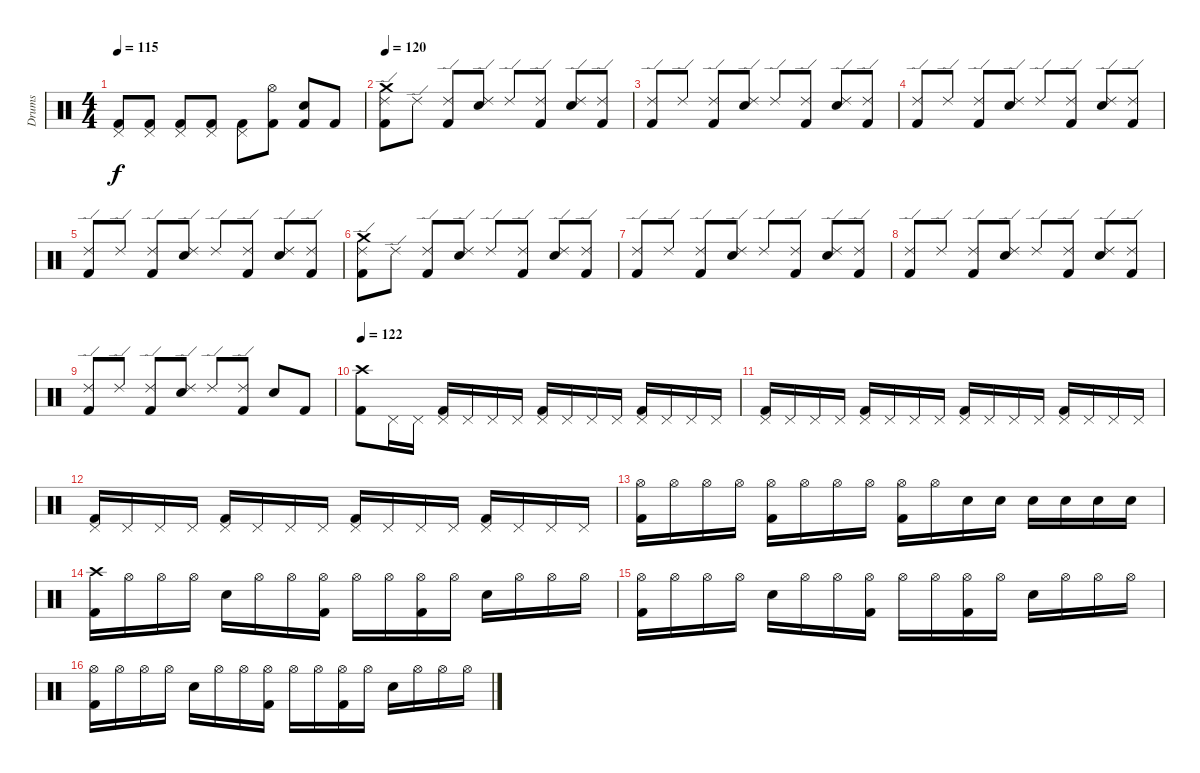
\track ("Drums" "Drums") {instrument percussion}
\staff {score}
\articulation defaults
\ts (4 4)
\tempo 115
\clef neutral
\ks c
("Pedal Hi-Hat (hit)" "Kick (hit) 2").8{dy f} ("Pedal Hi-Hat (hit)" "Kick (hit) 2").8 ("Pedal Hi-Hat (hit)" "Kick (hit) 2").8 ("Pedal Hi-Hat (hit)" "Kick (hit) 2").8 ("Pedal Hi-Hat (hit)" "Kick (hit) 2").8 ("Hi-Hat (open)" "Kick (hit) 2").8 ("Electric Snare (hit)" "Kick (hit) 2").8 "Kick (hit) 2".8 |
\tempo 120
("Ride (edge) 2" "Crash medium (hit)" "Kick (hit) 2").8 "Ride (edge) 2".8 ("Ride (edge) 2" "Kick (hit) 2").8 ("Ride (edge) 2" "Electric Snare (hit)").8 "Ride (edge) 2".8 ("Ride (edge) 2" "Kick (hit) 2").8 ("Ride (edge) 2" "Electric Snare (hit)").8 ("Ride (edge) 2" "Kick (hit) 2").8 |
("Ride (edge) 2" "Kick (hit) 2").8 "Ride (edge) 2".8 ("Ride (edge) 2" "Kick (hit) 2").8 ("Ride (edge) 2" "Electric Snare (hit)").8 "Ride (edge) 2".8 ("Ride (edge) 2" "Kick (hit) 2").8 ("Ride (edge) 2" "Electric Snare (hit)").8 ("Ride (edge) 2" "Kick (hit) 2").8 |
("Ride (edge) 2" "Kick (hit) 2").8 "Ride (edge) 2".8 ("Ride (edge) 2" "Kick (hit) 2").8 ("Ride (edge) 2" "Electric Snare (hit)").8 "Ride (edge) 2".8 ("Ride (edge) 2" "Kick (hit) 2").8 ("Ride (edge) 2" "Electric Snare (hit)").8 ("Ride (edge) 2" "Kick (hit) 2").8 |
("Ride (edge) 2" "Kick (hit) 2").8 "Ride (edge) 2".8 ("Ride (edge) 2" "Kick (hit) 2").8 ("Ride (edge) 2" "Electric Snare (hit)").8 "Ride (edge) 2".8 ("Ride (edge) 2" "Kick (hit) 2").8 ("Ride (edge) 2" "Electric Snare (hit)").8 ("Ride (edge) 2" "Kick (hit) 2").8 |
("Ride (edge) 2" "Crash medium (hit)" "Kick (hit) 2").8 "Ride (edge) 2".8 ("Ride (edge) 2" "Kick (hit) 2").8 ("Ride (edge) 2" "Electric Snare (hit)").8 "Ride (edge) 2".8 ("Ride (edge) 2" "Kick (hit) 2").8 ("Ride (edge) 2" "Electric Snare (hit)").8 ("Ride (edge) 2" "Kick (hit) 2").8 |
("Ride (edge) 2" "Kick (hit) 2").8 "Ride (edge) 2".8 ("Ride (edge) 2" "Kick (hit) 2").8 ("Ride (edge) 2" "Electric Snare (hit)").8 "Ride (edge) 2".8 ("Ride (edge) 2" "Kick (hit) 2").8 ("Ride (edge) 2" "Electric Snare (hit)").8 ("Ride (edge) 2" "Kick (hit) 2").8 |
("Ride (edge) 2" "Kick (hit) 2").8 "Ride (edge) 2".8 ("Ride (edge) 2" "Kick (hit) 2").8 ("Ride (edge) 2" "Electric Snare (hit)").8 "Ride (edge) 2".8 ("Ride (edge) 2" "Kick (hit) 2").8 ("Ride (edge) 2" "Electric Snare (hit)").8 ("Ride (edge) 2" "Kick (hit) 2").8 |
("Ride (edge) 2" "Kick (hit) 2").8 "Ride (edge) 2".8 ("Ride (edge) 2" "Kick (hit) 2").8 ("Ride (edge) 2" "Electric Snare (hit)").8 "Ride (edge) 2".8 ("Ride (edge) 2" "Kick (hit) 2").8 "Electric Snare (hit)".8 "Kick (hit) 2".8 |
\tempo 122
("Crash high (hit)" "Kick (hit) 2").8 "Pedal Hi-Hat (hit)".16 "Pedal Hi-Hat (hit)".16 ("Pedal Hi-Hat (hit)" "Kick (hit) 2").16 "Pedal Hi-Hat (hit)".16 "Pedal Hi-Hat (hit)".16 "Pedal Hi-Hat (hit)".16 ("Pedal Hi-Hat (hit)" "Kick (hit) 2").16 "Pedal Hi-Hat (hit)".16 "Pedal Hi-Hat (hit)".16 "Pedal Hi-Hat (hit)".16 ("Pedal Hi-Hat (hit)" "Kick (hit) 2").16 "Pedal Hi-Hat (hit)".16 "Pedal Hi-Hat (hit)".16 "Pedal Hi-Hat (hit)".16 |
("Pedal Hi-Hat (hit)" "Kick (hit) 2").16 "Pedal Hi-Hat (hit)".16 "Pedal Hi-Hat (hit)".16 "Pedal Hi-Hat (hit)".16 ("Pedal Hi-Hat (hit)" "Kick (hit) 2").16 "Pedal Hi-Hat (hit)".16 "Pedal Hi-Hat (hit)".16 "Pedal Hi-Hat (hit)".16 ("Pedal Hi-Hat (hit)" "Kick (hit) 2").16 "Pedal Hi-Hat (hit)".16 "Pedal Hi-Hat (hit)".16 "Pedal Hi-Hat (hit)".16 ("Pedal Hi-Hat (hit)" "Kick (hit) 2").16 "Pedal Hi-Hat (hit)".16 "Pedal Hi-Hat (hit)".16 "Pedal Hi-Hat (hit)".16 |
("Pedal Hi-Hat (hit)" "Kick (hit) 2").16 "Pedal Hi-Hat (hit)".16 "Pedal Hi-Hat (hit)".16 "Pedal Hi-Hat (hit)".16 ("Pedal Hi-Hat (hit)" "Kick (hit) 2").16 "Pedal Hi-Hat (hit)".16 "Pedal Hi-Hat (hit)".16 "Pedal Hi-Hat (hit)".16 ("Pedal Hi-Hat (hit)" "Kick (hit) 2").16 "Pedal Hi-Hat (hit)".16 "Pedal Hi-Hat (hit)".16 "Pedal Hi-Hat (hit)".16 ("Pedal Hi-Hat (hit)" "Kick (hit) 2").16 "Pedal Hi-Hat (hit)".16 "Pedal Hi-Hat (hit)".16 "Pedal Hi-Hat (hit)".16 |
("Hi-Hat (open)" "Kick (hit) 2").16 "Hi-Hat (open)".16 "Hi-Hat (open)".16 "Hi-Hat (open)".16 ("Hi-Hat (open)" "Kick (hit) 2").16 "Hi-Hat (open)".16 "Hi-Hat (open)".16 "Hi-Hat (open)".16 ("Hi-Hat (open)" "Kick (hit) 2").16 "Hi-Hat (open)".16 "Electric Snare (hit)".16 "Electric Snare (hit)".16 "Electric Snare (hit)".16 "Electric Snare (hit)".16 "Electric Snare (hit)".16 "Electric Snare (hit)".16 |
("Crash high (hit)" "Kick (hit) 2").16 "Hi-Hat (open)".16 "Hi-Hat (open)".16 "Hi-Hat (open)".16 "Electric Snare (hit)".16 "Hi-Hat (open)".16 "Hi-Hat (open)".16 ("Hi-Hat (open)" "Kick (hit) 2").16 "Hi-Hat (open)".16 "Hi-Hat (open)".16 ("Hi-Hat (open)" "Kick (hit) 2").16 "Hi-Hat (open)".16 "Electric Snare (hit)".16 "Hi-Hat (open)".16 "Hi-Hat (open)".16 "Hi-Hat (open)".16 |
("Hi-Hat (open)" "Kick (hit) 2").16 "Hi-Hat (open)".16 "Hi-Hat (open)".16 "Hi-Hat (open)".16 "Electric Snare (hit)".16 "Hi-Hat (open)".16 "Hi-Hat (open)".16 ("Hi-Hat (open)" "Kick (hit) 2").16 "Hi-Hat (open)".16 "Hi-Hat (open)".16 ("Hi-Hat (open)" "Kick (hit) 2").16 "Hi-Hat (open)".16 "Electric Snare (hit)".16 "Hi-Hat (open)".16 "Hi-Hat (open)".16 "Hi-Hat (open)".16 |
("Hi-Hat (open)" "Kick (hit) 2").16 "Hi-Hat (open)".16 "Hi-Hat (open)".16 "Hi-Hat (open)".16 "Electric Snare (hit)".16 "Hi-Hat (open)".16 "Hi-Hat (open)".16 ("Hi-Hat (open)" "Kick (hit) 2").16 "Hi-Hat (open)".16 "Hi-Hat (open)".16 ("Hi-Hat (open)" "Kick (hit) 2").16 "Hi-Hat (open)".16 "Electric Snare (hit)".16 "Hi-Hat (open)".16 "Hi-Hat (open)".16 "Hi-Hat (open)".16
